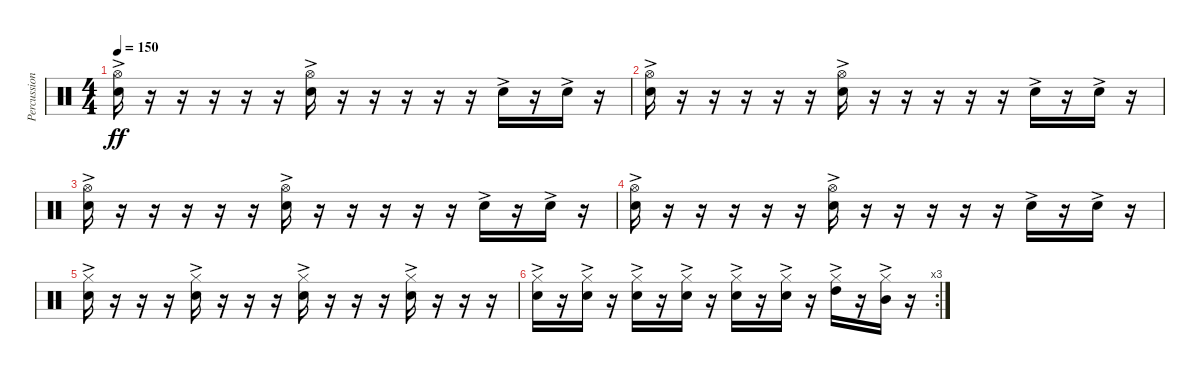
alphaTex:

\track ("Percussion" "Percussion") {instrument percussion}
\staff {score}
\articulation defaults
\ts (4 4)
\tempo 150
\clef neutral
\ks c
("Hi-Hat (open)"{ac} "Snare (hit) 2"{ac}).16{dy ff} r.16 r.16 r.16 r.16 r.16 ("Hi-Hat (open)"{ac} "Snare (hit) 2"{ac}).16 r.16 r.16 r.16 r.16 r.16 "Snare (hit) 2"{ac}.16 r.16 "Snare (hit) 2"{ac}.16 r.16 |
("Hi-Hat (open)"{ac} "Snare (hit) 2"{ac}).16 r.16 r.16 r.16 r.16 r.16 ("Hi-Hat (open)"{ac} "Snare (hit) 2"{ac}).16 r.16 r.16 r.16 r.16 r.16 "Snare (hit) 2"{ac}.16 r.16 "Snare (hit) 2"{ac}.16 r.16 |
("Hi-Hat (open)"{ac} "Snare (hit) 2"{ac}).16 r.16 r.16 r.16 r.16 r.16 ("Hi-Hat (open)"{ac} "Snare (hit) 2"{ac}).16 r.16 r.16 r.16 r.16 r.16 "Snare (hit) 2"{ac}.16 r.16 "Snare (hit) 2"{ac}.16 r.16 |
("Hi-Hat (open)"{ac} "Snare (hit) 2"{ac}).16 r.16 r.16 r.16 r.16 r.16 ("Hi-Hat (open)"{ac} "Snare (hit) 2"{ac}).16 r.16 r.16 r.16 r.16 r.16 "Snare (hit) 2"{ac}.16 r.16 "Snare (hit) 2"{ac}.16 r.16 |
("Hi-Hat (closed)"{ac} "Snare (hit) 2"{ac}).16 r.16 r.16 r.16 ("Hi-Hat (closed)"{ac} "Snare (hit) 2"{ac}).16 r.16 r.16 r.16 ("Hi-Hat (closed)"{ac} "Snare (hit) 2"{ac}).16 r.16 r.16 r.16 ("Hi-Hat (closed)"{ac} "Snare (hit) 2"{ac}).16 r.16 r.16 r.16 |
\rc 3
("Hi-Hat (closed)"{ac} "Snare (hit) 2"{ac}).16 r.16 ("Hi-Hat (closed)"{ac} "Snare (hit) 2"{ac}).16 r.16 ("Hi-Hat (closed)"{ac} "Snare (hit) 2"{ac}).16 r.16 ("Hi-Hat (closed)"{ac} "Snare (hit) 2"{ac}).16 r.16 ("Hi-Hat (closed)"{ac} "Snare (hit) 2"{ac}).16 r.16 ("Hi-Hat (closed)"{ac} "Snare (hit) 2"{ac}).16 r.16 ("Hi-Hat (closed)"{ac} "High Tom (hit)"{ac}).16 r.16 ("Hi-Hat (closed)"{ac} "Mid Tom (hit)"{ac}).16 r.16
